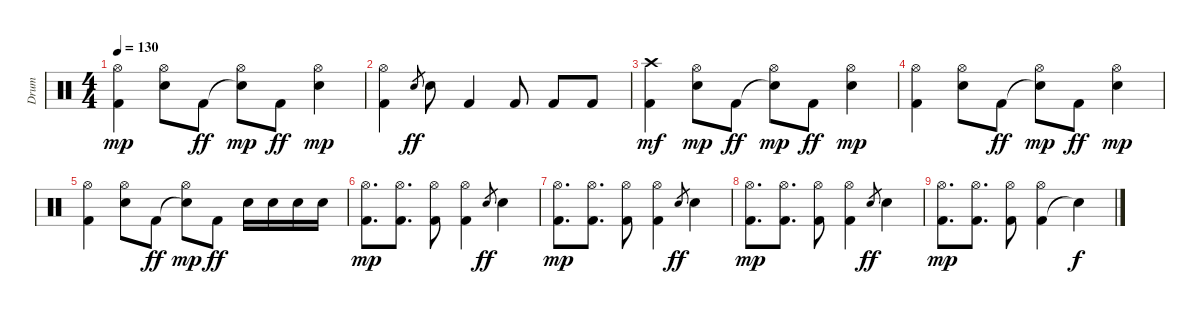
\track ("Drum" "Drum") {instrument percussion}
\staff {score}
\articulation defaults
\ts (4 4)
\tempo 130
\clef neutral
\ks c
("Kick (hit) 2" "Hi-Hat (open)").4{dy mp} ("Electric Snare (hit)" "Hi-Hat (open)").8 "Kick (hit) 2".8{dy ff} ("Snare (hit)"{t} "Hi-Hat (open)").8{dy mp} "Kick (hit) 2".8{dy ff} ("Electric Snare (hit)" "Hi-Hat (open)").4{dy mp} |
("Kick (hit) 2" "Hi-Hat (open)").4 "Electric Snare (hit)".8{gr dy ff} "Electric Snare (hit)".8 "Kick (hit) 2".4 "Kick (hit) 2".8 "Kick (hit) 2".8 "Kick (hit) 2".8 |
("Kick (hit) 2" "Crash high (hit)").4{dy mf} ("Electric Snare (hit)" "Hi-Hat (open)").8{dy mp} "Kick (hit) 2".8{dy ff} ("Snare (hit)"{t} "Hi-Hat (open)").8{dy mp} "Kick (hit) 2".8{dy ff} ("Electric Snare (hit)" "Hi-Hat (open)").4{dy mp} |
("Kick (hit) 2" "Hi-Hat (open)").4 ("Electric Snare (hit)" "Hi-Hat (open)").8 "Kick (hit) 2".8{dy ff} ("Snare (hit)"{t} "Hi-Hat (open)").8{dy mp} "Kick (hit) 2".8{dy ff} ("Electric Snare (hit)" "Hi-Hat (open)").4{dy mp} |
("Kick (hit) 2" "Hi-Hat (open)").4 ("Electric Snare (hit)" "Hi-Hat (open)").8 "Kick (hit) 2".8{dy ff} ("Snare (hit)"{t} "Hi-Hat (open)").8{dy mp} "Kick (hit) 2".8{dy ff} "Electric Snare (hit)".16 "Electric Snare (hit)".16 "Electric Snare (hit)".16 "Electric Snare (hit)".16 |
("Kick (hit) 2" "Hi-Hat (open)").8{d dy mp} ("Kick (hit) 2" "Hi-Hat (open)").8{d} ("Kick (hit) 2" "Hi-Hat (open)").8 ("Kick (hit) 2" "Hi-Hat (open)").4 "Electric Snare (hit)".8{gr dy ff} "Electric Snare (hit)".4 |
("Kick (hit) 2" "Hi-Hat (open)").8{d dy mp} ("Kick (hit) 2" "Hi-Hat (open)").8{d} ("Kick (hit) 2" "Hi-Hat (open)").8 ("Kick (hit) 2" "Hi-Hat (open)").4 "Electric Snare (hit)".8{gr dy ff} "Electric Snare (hit)".4 |
("Kick (hit) 2" "Hi-Hat (open)").8{d dy mp} ("Kick (hit) 2" "Hi-Hat (open)").8{d} ("Kick (hit) 2" "Hi-Hat (open)").8 ("Kick (hit) 2" "Hi-Hat (open)").4 "Electric Snare (hit)".8{gr dy ff} "Electric Snare (hit)".4 |
("Kick (hit) 2" "Hi-Hat (open)").8{d dy mp} ("Kick (hit) 2" "Hi-Hat (open)").8{d} ("Kick (hit) 2" "Hi-Hat (open)").8 ("Kick (hit) 2" "Hi-Hat (open)").4 "Electric Snare (hit)"{t}.4{dy f}
